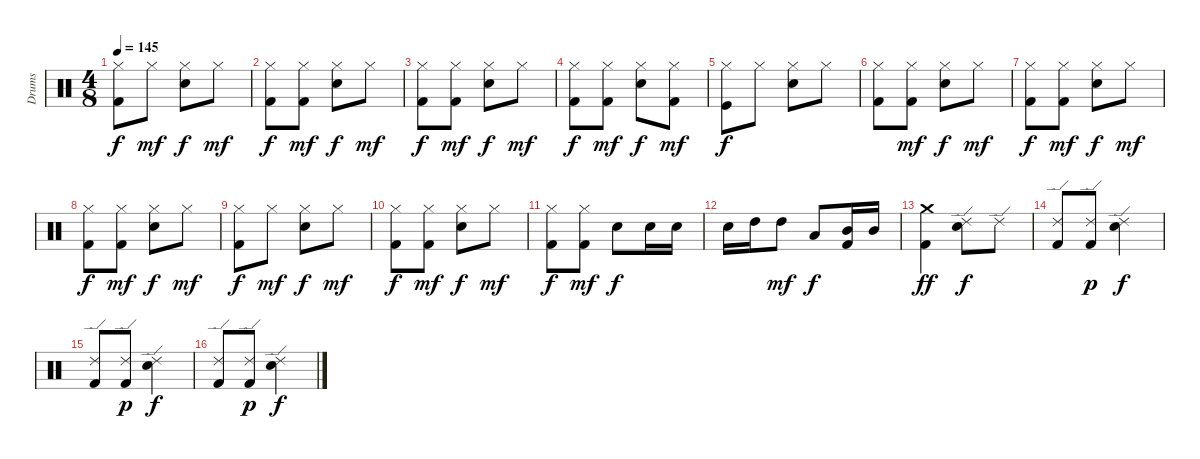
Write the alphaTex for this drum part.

\track ("Drums" "Drums") {instrument percussion}
\staff {score}
\articulation defaults
\ts (4 8)
\tempo 145
\clef neutral
\ks c
("Hi-Hat (closed)" "Kick (hit) 2").8{dy f} "Hi-Hat (closed)".8{dy mf} ("Hi-Hat (closed)" "Snare (hit) 2").8{dy f} "Hi-Hat (closed)".8{dy mf} |
("Hi-Hat (closed)" "Kick (hit) 2").8{dy f} ("Hi-Hat (closed)" "Kick (hit) 2").8{dy mf} ("Hi-Hat (closed)" "Snare (hit) 2").8{dy f} "Hi-Hat (closed)".8{dy mf} |
("Hi-Hat (closed)" "Kick (hit) 2").8{dy f} ("Hi-Hat (closed)" "Kick (hit) 2").8{dy mf} ("Hi-Hat (closed)" "Snare (hit) 2").8{dy f} "Hi-Hat (closed)".8{dy mf} |
("Hi-Hat (closed)" "Kick (hit) 2").8{dy f} ("Hi-Hat (closed)" "Kick (hit) 2").8{dy mf} ("Hi-Hat (closed)" "Snare (hit) 2").8{dy f} ("Hi-Hat (closed)" "Kick (hit) 2").8{dy mf} |
("Hi-Hat (closed)" "Kick (hit)").8{dy f} "Hi-Hat (closed)".8 ("Hi-Hat (closed)" "Snare (hit) 2").8 "Hi-Hat (closed)".8 |
("Hi-Hat (closed)" "Kick (hit) 2").8 ("Hi-Hat (closed)" "Kick (hit) 2").8{dy mf} ("Hi-Hat (closed)" "Snare (hit) 2").8{dy f} "Hi-Hat (closed)".8{dy mf} |
("Hi-Hat (closed)" "Kick (hit) 2").8{dy f} ("Hi-Hat (closed)" "Kick (hit) 2").8{dy mf} ("Hi-Hat (closed)" "Snare (hit) 2").8{dy f} "Hi-Hat (closed)".8{dy mf} |
("Hi-Hat (closed)" "Kick (hit) 2").8{dy f} ("Hi-Hat (closed)" "Kick (hit) 2").8{dy mf} ("Hi-Hat (closed)" "Snare (hit) 2").8{dy f} "Hi-Hat (closed)".8{dy mf} |
("Hi-Hat (closed)" "Kick (hit) 2").8{dy f} "Hi-Hat (closed)".8{dy mf} ("Hi-Hat (closed)" "Snare (hit) 2").8{dy f} "Hi-Hat (closed)".8{dy mf} |
("Hi-Hat (closed)" "Kick (hit) 2").8{dy f} ("Hi-Hat (closed)" "Kick (hit) 2").8{dy mf} ("Hi-Hat (closed)" "Snare (hit) 2").8{dy f} "Hi-Hat (closed)".8{dy mf} |
("Hi-Hat (closed)" "Kick (hit) 2").8{dy f} ("Hi-Hat (closed)" "Kick (hit) 2").8{dy mf} "Snare (hit) 2".8{dy f} "Snare (hit) 2".16 "Snare (hit) 2".16 |
"Snare (hit) 2".16 "High Tom (hit)".16 "High Tom (hit)".8{dy mf} "Low Tom (hit)".8{dy f} ("Mid Tom (hit)" "Kick (hit) 2").16 "Mid Tom (hit)".16 |
("Crash medium (hit)" "Kick (hit) 2").4{dy ff} ("Ride (edge) 2" "Snare (hit) 2").8{dy f} "Ride (edge) 2".8 |
("Ride (edge) 2" "Kick (hit) 2").8 ("Ride (edge) 2" "Kick (hit) 2").8{dy p} ("Ride (edge) 2" "Snare (hit) 2").4{dy f} |
("Ride (edge) 2" "Kick (hit) 2").8 ("Ride (edge) 2" "Kick (hit) 2").8{dy p} ("Ride (edge) 2" "Snare (hit) 2").4{dy f} |
("Ride (edge) 2" "Kick (hit) 2").8 ("Ride (edge) 2" "Kick (hit) 2").8{dy p} ("Ride (edge) 2" "Snare (hit) 2").4{dy f}
